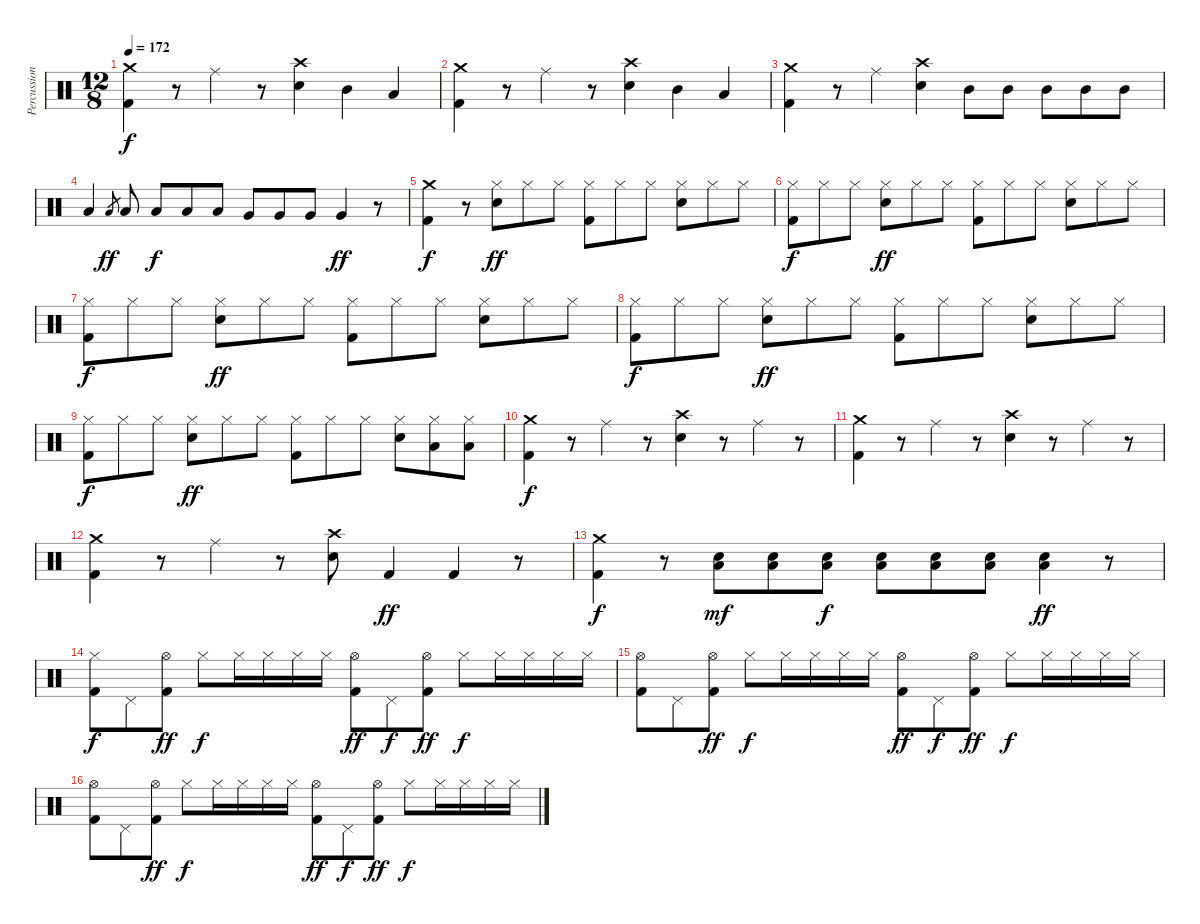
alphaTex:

\track ("Percussion" "Percussion") {instrument percussion}
\staff {score}
\articulation defaults
\ts (12 8)
\tempo 172
\clef neutral
\ks c
("Kick (hit) 2" "Crash medium (hit)").4{dy f} r.8 "Ride (middle)".4 r.8 ("Snare (hit) 2" "Crash high (hit)").4 "Mid Tom (hit)".4 "Low Tom (hit)".4 |
("Kick (hit) 2" "Crash medium (hit)").4 r.8 "Ride (middle)".4 r.8 ("Snare (hit) 2" "Crash high (hit)").4 "Mid Tom (hit)".4 "Low Tom (hit)".4 |
("Kick (hit) 2" "Crash medium (hit)").4 r.8 "Ride (middle)".4 ("Snare (hit) 2" "Crash high (hit)").4 "Mid Tom (hit)".8 "Mid Tom (hit)".8 "Mid Tom (hit)".8 "Mid Tom (hit)".8 "Mid Tom (hit)".8 |
"Low Tom (hit)".4 "Low Tom (hit)".8{gr dy ff} "Low Tom (hit)".8 "Low Tom (hit)".8{dy f} "Low Tom (hit)".8 "Low Tom (hit)".8 "Very Low Tom (hit)".8 "Very Low Tom (hit)".8 "Very Low Tom (hit)".8 "Very Low Tom (hit)".4{dy ff} r.8 |
("Kick (hit) 2" "Crash medium (hit)").4{dy f} r.8 ("Snare (hit) 2" "Hi-Hat (closed)").8{dy ff} "Hi-Hat (closed)".8 "Hi-Hat (closed)".8 ("Kick (hit) 2" "Hi-Hat (closed)").8 "Hi-Hat (closed)".8 "Hi-Hat (closed)".8 ("Snare (hit) 2" "Hi-Hat (closed)").8 "Hi-Hat (closed)".8 "Hi-Hat (closed)".8 |
("Kick (hit) 2" "Hi-Hat (closed)").8{dy f} "Hi-Hat (closed)".8 "Hi-Hat (closed)".8 ("Snare (hit) 2" "Hi-Hat (closed)").8{dy ff} "Hi-Hat (closed)".8 "Hi-Hat (closed)".8 ("Kick (hit) 2" "Hi-Hat (closed)").8 "Hi-Hat (closed)".8 "Hi-Hat (closed)".8 ("Snare (hit) 2" "Hi-Hat (closed)").8 "Hi-Hat (closed)".8 "Hi-Hat (closed)".8 |
("Kick (hit) 2" "Hi-Hat (closed)").8{dy f} "Hi-Hat (closed)".8 "Hi-Hat (closed)".8 ("Snare (hit) 2" "Hi-Hat (closed)").8{dy ff} "Hi-Hat (closed)".8 "Hi-Hat (closed)".8 ("Kick (hit) 2" "Hi-Hat (closed)").8 "Hi-Hat (closed)".8 "Hi-Hat (closed)".8 ("Snare (hit) 2" "Hi-Hat (closed)").8 "Hi-Hat (closed)".8 "Hi-Hat (closed)".8 |
("Kick (hit) 2" "Hi-Hat (closed)").8{dy f} "Hi-Hat (closed)".8 "Hi-Hat (closed)".8 ("Snare (hit) 2" "Hi-Hat (closed)").8{dy ff} "Hi-Hat (closed)".8 "Hi-Hat (closed)".8 ("Kick (hit) 2" "Hi-Hat (closed)").8 "Hi-Hat (closed)".8 "Hi-Hat (closed)".8 ("Snare (hit) 2" "Hi-Hat (closed)").8 "Hi-Hat (closed)".8 "Hi-Hat (closed)".8 |
("Kick (hit) 2" "Hi-Hat (closed)").8{dy f} "Hi-Hat (closed)".8 "Hi-Hat (closed)".8 ("Snare (hit) 2" "Hi-Hat (closed)").8{dy ff} "Hi-Hat (closed)".8 "Hi-Hat (closed)".8 ("Kick (hit) 2" "Hi-Hat (closed)").8 "Hi-Hat (closed)".8 "Hi-Hat (closed)".8 ("Snare (hit) 2" "Hi-Hat (closed)").8 ("Low Floor Tom (hit)" "Hi-Hat (closed)").8 ("Low Floor Tom (hit)" "Hi-Hat (closed)").8 |
("Kick (hit) 2" "Crash medium (hit)").4{dy f} r.8 "Ride (middle)".4 r.8 ("Snare (hit) 2" "Crash high (hit)").4 r.8 "Ride (middle)".4 r.8 |
("Kick (hit) 2" "Crash medium (hit)").4 r.8 "Ride (middle)".4 r.8 ("Snare (hit) 2" "Crash high (hit)").4 r.8 "Ride (middle)".4 r.8 |
("Kick (hit) 2" "Crash medium (hit)").4 r.8 "Ride (middle)".4 r.8 ("Snare (hit) 2" "Crash high (hit)").8 "Kick (hit) 2".4{dy ff} "Kick (hit) 2".4 r.8 |
("Kick (hit) 2" "Crash medium (hit)").4{dy f} r.8 ("Snare (hit) 2" "Low Floor Tom (hit)").8{dy mf} ("Snare (hit) 2" "Low Floor Tom (hit)").8 ("Snare (hit) 2" "Low Floor Tom (hit)").8{dy f} ("Snare (hit) 2" "Low Floor Tom (hit)").8 ("Snare (hit) 2" "Low Floor Tom (hit)").8 ("Snare (hit) 2" "Low Floor Tom (hit)").8 ("Snare (hit) 2" "Low Floor Tom (hit)").4{dy ff} r.8 |
("Kick (hit) 2" "Hi-Hat (closed)").8{dy f} "Pedal Hi-Hat (hit)".8 ("Kick (hit) 2" "Hi-Hat (open)").8{dy ff} "Hi-Hat (closed)".8{dy f} "Hi-Hat (closed)".16 "Hi-Hat (closed)".16 "Hi-Hat (closed)".16 "Hi-Hat (closed)".16 ("Kick (hit) 2" "Hi-Hat (open)").8{dy ff} "Pedal Hi-Hat (hit)".8{dy f} ("Kick (hit) 2" "Hi-Hat (open)").8{dy ff} "Hi-Hat (closed)".8{dy f} "Hi-Hat (closed)".16 "Hi-Hat (closed)".16 "Hi-Hat (closed)".16 "Hi-Hat (closed)".16 |
("Kick (hit) 2" "Hi-Hat (open)").8 "Pedal Hi-Hat (hit)".8 ("Kick (hit) 2" "Hi-Hat (open)").8{dy ff} "Hi-Hat (closed)".8{dy f} "Hi-Hat (closed)".16 "Hi-Hat (closed)".16 "Hi-Hat (closed)".16 "Hi-Hat (closed)".16 ("Kick (hit) 2" "Hi-Hat (open)").8{dy ff} "Pedal Hi-Hat (hit)".8{dy f} ("Kick (hit) 2" "Hi-Hat (open)").8{dy ff} "Hi-Hat (closed)".8{dy f} "Hi-Hat (closed)".16 "Hi-Hat (closed)".16 "Hi-Hat (closed)".16 "Hi-Hat (closed)".16 |
("Kick (hit) 2" "Hi-Hat (open)").8 "Pedal Hi-Hat (hit)".8 ("Kick (hit) 2" "Hi-Hat (open)").8{dy ff} "Hi-Hat (closed)".8{dy f} "Hi-Hat (closed)".16 "Hi-Hat (closed)".16 "Hi-Hat (closed)".16 "Hi-Hat (closed)".16 ("Kick (hit) 2" "Hi-Hat (open)").8{dy ff} "Pedal Hi-Hat (hit)".8{dy f} ("Kick (hit) 2" "Hi-Hat (open)").8{dy ff} "Hi-Hat (closed)".8{dy f} "Hi-Hat (closed)".16 "Hi-Hat (closed)".16 "Hi-Hat (closed)".16 "Hi-Hat (closed)".16
